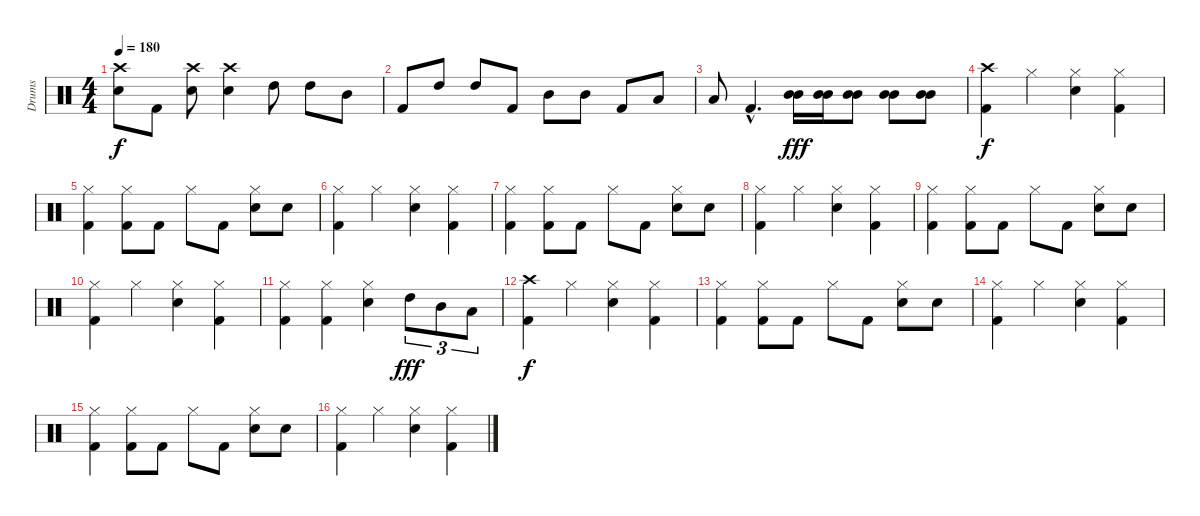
\track ("Drums" "Drums") {instrument percussion}
\staff {score}
\articulation defaults
\ts (4 4)
\tempo 180
\clef neutral
\ks c
("Crash high (hit)" "Snare (hit) 2").8{dy f} "Kick (hit) 2".8 ("Crash high (hit)" "Snare (hit) 2").8 ("Crash high (hit)" "Snare (hit) 2").4 "High Tom (hit)".8 "High Tom (hit)".8 "Mid Tom (hit)".8 |
"Kick (hit) 2".8 "High Tom (hit)".8 "High Tom (hit)".8 "Kick (hit) 2".8 "Mid Tom (hit)".8 "Mid Tom (hit)".8 "Kick (hit) 2".8 "Low Tom (hit)".8 |
"Low Tom (hit)".8 "Kick (hit) 2"{hac}.4{d} ("Mid Tom (hit)" "Mid Tom (hit)").16{dy fff} ("Mid Tom (hit)" "Mid Tom (hit)").16 ("Mid Tom (hit)" "Mid Tom (hit)").8 ("Mid Tom (hit)" "Mid Tom (hit)").8 ("Mid Tom (hit)" "Mid Tom (hit)").8 |
("Crash high (hit)" "Kick (hit) 2").4{dy f} "Hi-Hat (closed)".4 ("Hi-Hat (closed)" "Snare (hit) 2").4 ("Hi-Hat (closed)" "Kick (hit) 2").4 |
("Hi-Hat (closed)" "Kick (hit) 2").4 ("Hi-Hat (closed)" "Kick (hit) 2").8 "Kick (hit) 2".8 "Hi-Hat (closed)".8 "Kick (hit) 2".8 ("Hi-Hat (closed)" "Snare (hit) 2").8 "Snare (hit) 2".8 |
("Hi-Hat (closed)" "Kick (hit) 2").4 "Hi-Hat (closed)".4 ("Hi-Hat (closed)" "Snare (hit) 2").4 ("Hi-Hat (closed)" "Kick (hit) 2").4 |
("Hi-Hat (closed)" "Kick (hit) 2").4 ("Hi-Hat (closed)" "Kick (hit) 2").8 "Kick (hit) 2".8 "Hi-Hat (closed)".8 "Kick (hit) 2".8 ("Hi-Hat (closed)" "Snare (hit) 2").8 "Snare (hit) 2".8 |
("Hi-Hat (closed)" "Kick (hit) 2").4 "Hi-Hat (closed)".4 ("Hi-Hat (closed)" "Snare (hit) 2").4 ("Hi-Hat (closed)" "Kick (hit) 2").4 |
("Hi-Hat (closed)" "Kick (hit) 2").4 ("Hi-Hat (closed)" "Kick (hit) 2").8 "Kick (hit) 2".8 "Hi-Hat (closed)".8 "Kick (hit) 2".8 ("Hi-Hat (closed)" "Snare (hit) 2").8 "Snare (hit) 2".8 |
("Hi-Hat (closed)" "Kick (hit) 2").4 "Hi-Hat (closed)".4 ("Hi-Hat (closed)" "Snare (hit) 2").4 ("Hi-Hat (closed)" "Kick (hit) 2").4 |
("Hi-Hat (closed)" "Kick (hit) 2").4 ("Hi-Hat (closed)" "Kick (hit) 2").4 ("Hi-Hat (closed)" "Snare (hit) 2").4 "High Tom (hit)".8{tu (3 2) dy fff} "Mid Tom (hit)".8{tu (3 2)} "Low Tom (hit)".8{tu (3 2)} |
("Crash high (hit)" "Kick (hit) 2").4{dy f} "Hi-Hat (closed)".4 ("Hi-Hat (closed)" "Snare (hit) 2").4 ("Hi-Hat (closed)" "Kick (hit) 2").4 |
("Hi-Hat (closed)" "Kick (hit) 2").4 ("Hi-Hat (closed)" "Kick (hit) 2").8 "Kick (hit) 2".8 "Hi-Hat (closed)".8 "Kick (hit) 2".8 ("Hi-Hat (closed)" "Snare (hit) 2").8 "Snare (hit) 2".8 |
("Hi-Hat (closed)" "Kick (hit) 2").4 "Hi-Hat (closed)".4 ("Hi-Hat (closed)" "Snare (hit) 2").4 ("Hi-Hat (closed)" "Kick (hit) 2").4 |
("Hi-Hat (closed)" "Kick (hit) 2").4 ("Hi-Hat (closed)" "Kick (hit) 2").8 "Kick (hit) 2".8 "Hi-Hat (closed)".8 "Kick (hit) 2".8 ("Hi-Hat (closed)" "Snare (hit) 2").8 "Snare (hit) 2".8 |
("Hi-Hat (closed)" "Kick (hit) 2").4 "Hi-Hat (closed)".4 ("Hi-Hat (closed)" "Snare (hit) 2").4 ("Hi-Hat (closed)" "Kick (hit) 2").4
